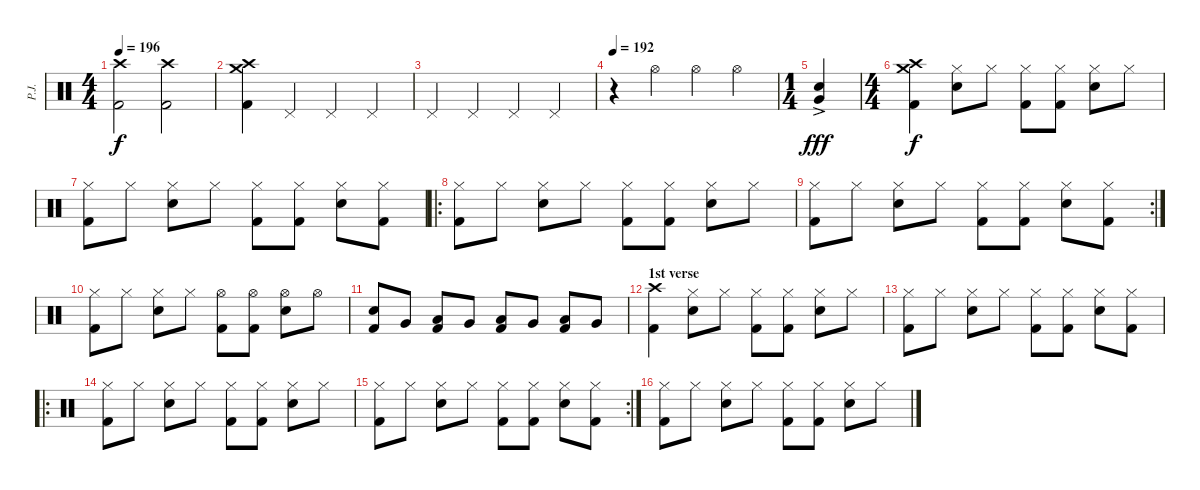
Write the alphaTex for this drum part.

\track ("P.J." "P.J.") {instrument percussion}
\staff {score}
\articulation defaults
\ts (4 4)
\tempo 196
\tempo 170
\tempo 196
\clef neutral
\ks c
("Crash high (hit)" "Kick (hit) 2").2{dy f} ("Crash high (hit)" "Kick (hit) 2").2 |
("Crash high (hit)" "Crash medium (hit)" "Kick (hit) 2").4 "Pedal Hi-Hat (hit)".4 "Pedal Hi-Hat (hit)".4 "Pedal Hi-Hat (hit)".4 |
"Pedal Hi-Hat (hit)".4 "Pedal Hi-Hat (hit)".4 "Pedal Hi-Hat (hit)".4 "Pedal Hi-Hat (hit)".4 |
\tempo 192
r.4 "Hi-Hat (open)".4 "Hi-Hat (open)".4 "Hi-Hat (open)".4 |
\ts (1 4)
("Snare (hit) 2" "Very Low Tom (hit)"{ac}).4{dy fff} |
\ts (4 4)
("Crash high (hit)" "Crash medium (hit)" "Kick (hit) 2").4{dy f} ("Hi-Hat (closed)" "Snare (hit) 2").8 "Hi-Hat (closed)".8 ("Hi-Hat (closed)" "Kick (hit) 2").8 ("Hi-Hat (closed)" "Kick (hit) 2").8 ("Hi-Hat (closed)" "Snare (hit) 2").8 "Hi-Hat (closed)".8 |
("Hi-Hat (closed)" "Kick (hit) 2").8 "Hi-Hat (closed)".8 ("Hi-Hat (closed)" "Snare (hit) 2").8 "Hi-Hat (closed)".8 ("Hi-Hat (closed)" "Kick (hit) 2").8 ("Hi-Hat (closed)" "Kick (hit) 2").8 ("Hi-Hat (closed)" "Snare (hit) 2").8 ("Hi-Hat (closed)" "Kick (hit) 2").8 |
\ro
("Hi-Hat (closed)" "Kick (hit) 2").8 "Hi-Hat (closed)".8 ("Hi-Hat (closed)" "Snare (hit) 2").8 "Hi-Hat (closed)".8 ("Hi-Hat (closed)" "Kick (hit) 2").8 ("Hi-Hat (closed)" "Kick (hit) 2").8 ("Hi-Hat (closed)" "Snare (hit) 2").8 "Hi-Hat (closed)".8 |
\rc 2
("Hi-Hat (closed)" "Kick (hit) 2").8 "Hi-Hat (closed)".8 ("Hi-Hat (closed)" "Snare (hit) 2").8 "Hi-Hat (closed)".8 ("Hi-Hat (closed)" "Kick (hit) 2").8 ("Hi-Hat (closed)" "Kick (hit) 2").8 ("Hi-Hat (closed)" "Snare (hit) 2").8 ("Hi-Hat (closed)" "Kick (hit) 2").8 |
("Hi-Hat (closed)" "Kick (hit) 2").8 "Hi-Hat (closed)".8 ("Hi-Hat (closed)" "Snare (hit) 2").8 "Hi-Hat (closed)".8 ("Hi-Hat (open)" "Kick (hit) 2").8 ("Hi-Hat (open)" "Kick (hit) 2").8 ("Hi-Hat (open)" "Snare (hit) 2").8 "Hi-Hat (open)".8 |
("Snare (hit) 2" "Kick (hit) 2").8 "Very Low Tom (hit)".8 ("Low Tom (hit)" "Kick (hit) 2").8 "Very Low Tom (hit)".8 ("Low Tom (hit)" "Kick (hit) 2").8 "Very Low Tom (hit)".8 ("Low Tom (hit)" "Kick (hit) 2").8 "Very Low Tom (hit)".8 |
\section ("" "1st verse")
("Crash high (hit)" "Kick (hit) 2").4 ("Hi-Hat (closed)" "Snare (hit) 2").8 "Hi-Hat (closed)".8 ("Hi-Hat (closed)" "Kick (hit) 2").8 ("Hi-Hat (closed)" "Kick (hit) 2").8 ("Hi-Hat (closed)" "Snare (hit) 2").8 "Hi-Hat (closed)".8 |
("Hi-Hat (closed)" "Kick (hit) 2").8 "Hi-Hat (closed)".8 ("Hi-Hat (closed)" "Snare (hit) 2").8 "Hi-Hat (closed)".8 ("Hi-Hat (closed)" "Kick (hit) 2").8 ("Hi-Hat (closed)" "Kick (hit) 2").8 ("Hi-Hat (closed)" "Snare (hit) 2").8 ("Hi-Hat (closed)" "Kick (hit) 2").8 |
\ro
("Hi-Hat (closed)" "Kick (hit) 2").8 "Hi-Hat (closed)".8 ("Hi-Hat (closed)" "Snare (hit) 2").8 "Hi-Hat (closed)".8 ("Hi-Hat (closed)" "Kick (hit) 2").8 ("Hi-Hat (closed)" "Kick (hit) 2").8 ("Hi-Hat (closed)" "Snare (hit) 2").8 "Hi-Hat (closed)".8 |
\rc 2
("Hi-Hat (closed)" "Kick (hit) 2").8 "Hi-Hat (closed)".8 ("Hi-Hat (closed)" "Snare (hit) 2").8 "Hi-Hat (closed)".8 ("Hi-Hat (closed)" "Kick (hit) 2").8 ("Hi-Hat (closed)" "Kick (hit) 2").8 ("Hi-Hat (closed)" "Snare (hit) 2").8 ("Hi-Hat (closed)" "Kick (hit) 2").8 |
("Hi-Hat (closed)" "Kick (hit) 2").8 "Hi-Hat (closed)".8 ("Hi-Hat (closed)" "Snare (hit) 2").8 "Hi-Hat (closed)".8 ("Hi-Hat (closed)" "Kick (hit) 2").8 ("Hi-Hat (closed)" "Kick (hit) 2").8 ("Hi-Hat (closed)" "Snare (hit) 2").8 "Hi-Hat (closed)".8
